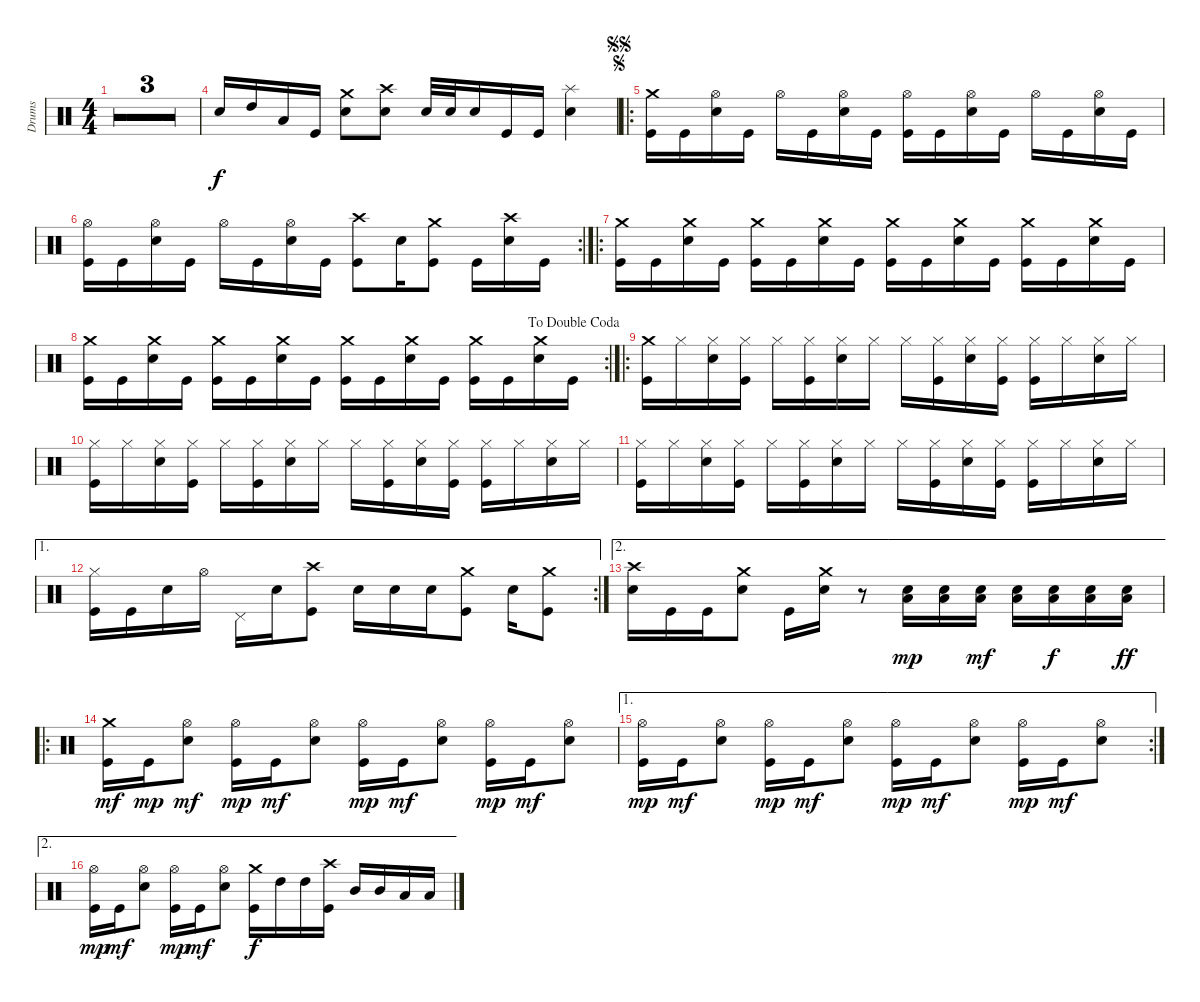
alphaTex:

\bracketExtendMode groupsimilarinstruments
\otherSystemsTrackNameOrientation horizontal
\track ("Drumkit" "Drums") {multiBarRest instrument percussion}
\staff {score}
\articulation defaults
\ts (4 4)
\beaming (8 2 2 2 2)
\tempo 100
\clef neutral
\ks c
r.4{dy f} r.2{d} |
r.4 r.2{d} |
r.4 r.2{d} |
"Snare (hit) 2".16 "High Tom (hit)".16 "Low Tom (hit)".16 "Kick (hit)".16 ("Crash medium (hit)" "Snare (hit) 2").8 ("Crash high (hit)" "Snare (hit) 2").8 "Snare (hit) 2".32 "Snare (hit) 2".32 "Snare (hit) 2".16 "Kick (hit)".16 "Kick (hit)".16 ("Splash (hit)" "Snare (hit) 2").4 |
\ro
\jump segno
\jump segnosegno
("Crash medium (hit)" "Kick (hit)").16 "Kick (hit)".16 ("Hi-Hat (open)" "Snare (hit) 2").16 "Kick (hit)".16 "Hi-Hat (open)".16 "Kick (hit)".16 ("Hi-Hat (open)" "Snare (hit) 2").16 "Kick (hit)".16 ("Hi-Hat (open)" "Kick (hit)").16 "Kick (hit)".16 ("Hi-Hat (open)" "Snare (hit) 2").16 "Kick (hit)".16 "Hi-Hat (open)".16 "Kick (hit)".16 ("Hi-Hat (open)" "Snare (hit) 2").16 "Kick (hit)".16 |
\rc 2
("Hi-Hat (open)" "Kick (hit)").16 "Kick (hit)".16 ("Hi-Hat (open)" "Snare (hit) 2").16 "Kick (hit)".16 "Hi-Hat (open)".16 "Kick (hit)".16 ("Hi-Hat (open)" "Snare (hit) 2").16 "Kick (hit)".16 ("Crash high (hit)" "Kick (hit)").8 "Snare (hit) 2".16 ("Crash medium (hit)" "Kick (hit)").8 "Kick (hit)".16 ("Crash high (hit)" "Snare (hit) 2").16 "Kick (hit)".16 |
\ro
("Crash medium (hit)" "Kick (hit)").16 "Kick (hit)".16 ("Crash medium (hit)" "Snare (hit) 2").16 "Kick (hit)".16 ("Crash medium (hit)" "Kick (hit)").16 "Kick (hit)".16 ("Crash medium (hit)" "Snare (hit) 2").16 "Kick (hit)".16 ("Crash medium (hit)" "Kick (hit)").16 "Kick (hit)".16 ("Crash medium (hit)" "Snare (hit) 2").16 "Kick (hit)".16 ("Crash medium (hit)" "Kick (hit)").16 "Kick (hit)".16 ("Crash medium (hit)" "Snare (hit) 2").16 "Kick (hit)".16 |
\rc 2
\jump dadoublecoda
("Crash medium (hit)" "Kick (hit)").16 "Kick (hit)".16 ("Crash medium (hit)" "Snare (hit) 2").16 "Kick (hit)".16 ("Crash medium (hit)" "Kick (hit)").16 "Kick (hit)".16 ("Crash medium (hit)" "Snare (hit) 2").16 "Kick (hit)".16 ("Crash medium (hit)" "Kick (hit)").16 "Kick (hit)".16 ("Crash medium (hit)" "Snare (hit) 2").16 "Kick (hit)".16 ("Crash medium (hit)" "Kick (hit)").16 "Kick (hit)".16 ("Crash medium (hit)" "Snare (hit) 2").16 "Kick (hit)".16 |
\ro
("Crash medium (hit)" "Kick (hit)").16 "Hi-Hat (closed)".16 ("Hi-Hat (closed)" "Snare (hit) 2").16 ("Hi-Hat (closed)" "Kick (hit)").16 "Hi-Hat (closed)".16 ("Hi-Hat (closed)" "Kick (hit)").16 ("Hi-Hat (closed)" "Snare (hit) 2").16 "Hi-Hat (closed)".16 "Hi-Hat (closed)".16 ("Hi-Hat (closed)" "Kick (hit)").16 ("Hi-Hat (closed)" "Snare (hit) 2").16 ("Hi-Hat (closed)" "Kick (hit)").16 ("Hi-Hat (closed)" "Kick (hit)").16 "Hi-Hat (closed)".16 ("Hi-Hat (closed)" "Snare (hit) 2").16 "Hi-Hat (closed)".16 |
("Hi-Hat (closed)" "Kick (hit)").16 "Hi-Hat (closed)".16 ("Hi-Hat (closed)" "Snare (hit) 2").16 ("Hi-Hat (closed)" "Kick (hit)").16 "Hi-Hat (closed)".16 ("Hi-Hat (closed)" "Kick (hit)").16 ("Hi-Hat (closed)" "Snare (hit) 2").16 "Hi-Hat (closed)".16 "Hi-Hat (closed)".16 ("Hi-Hat (closed)" "Kick (hit)").16 ("Hi-Hat (closed)" "Snare (hit) 2").16 ("Hi-Hat (closed)" "Kick (hit)").16 ("Hi-Hat (closed)" "Kick (hit)").16 "Hi-Hat (closed)".16 ("Hi-Hat (closed)" "Snare (hit) 2").16 "Hi-Hat (closed)".16 |
("Hi-Hat (closed)" "Kick (hit)").16 "Hi-Hat (closed)".16 ("Hi-Hat (closed)" "Snare (hit) 2").16 ("Hi-Hat (closed)" "Kick (hit)").16 "Hi-Hat (closed)".16 ("Hi-Hat (closed)" "Kick (hit)").16 ("Hi-Hat (closed)" "Snare (hit) 2").16 "Hi-Hat (closed)".16 "Hi-Hat (closed)".16 ("Hi-Hat (closed)" "Kick (hit)").16 ("Hi-Hat (closed)" "Snare (hit) 2").16 ("Hi-Hat (closed)" "Kick (hit)").16 ("Hi-Hat (closed)" "Kick (hit)").16 "Hi-Hat (closed)".16 ("Hi-Hat (closed)" "Snare (hit) 2").16 "Hi-Hat (closed)".16 |
\ae 1
\rc 2
("Hi-Hat (closed)" "Kick (hit)").16 "Kick (hit)".16 "Snare (hit) 2".16 "Hi-Hat (open)".16 "Pedal Hi-Hat (hit)".16 "Snare (hit) 2".16 ("Crash high (hit)" "Kick (hit)").8 "Snare (hit) 2".16 "Snare (hit) 2".16 "Snare (hit) 2".16 ("Crash medium (hit)" "Kick (hit)").8 "Snare (hit) 2".16 ("Crash medium (hit)" "Kick (hit)").8 |
\ae 2
("Crash high (hit)" "Snare (hit) 2").16 "Kick (hit)".16 "Kick (hit)".16 ("Crash medium (hit)" "Snare (hit) 2").8 "Kick (hit)".16 ("Crash medium (hit)" "Snare (hit) 2").16 r.8 ("Low Tom (hit)" "Snare (hit) 2").16{dy mp} ("Low Tom (hit)" "Snare (hit) 2").16 ("Low Tom (hit)" "Snare (hit) 2").16{dy mf} ("Low Tom (hit)" "Snare (hit) 2").16 ("Low Tom (hit)" "Snare (hit) 2").16{dy f} ("Low Tom (hit)" "Snare (hit) 2").16 ("Low Tom (hit)" "Snare (hit) 2").16{dy ff} |
\ro
("Crash medium (hit)" "Kick (hit)").16{dy mf} "Kick (hit)".16{dy mp} ("Hi-Hat (open)" "Snare (hit) 2").8{dy mf} ("Kick (hit)" "Hi-Hat (open)").16{dy mp} "Kick (hit)".16{dy mf} ("Hi-Hat (open)" "Snare (hit) 2").8 ("Kick (hit)" "Hi-Hat (open)").16{dy mp} "Kick (hit)".16{dy mf} ("Hi-Hat (open)" "Snare (hit) 2").8 ("Kick (hit)" "Hi-Hat (open)").16{dy mp} "Kick (hit)".16{dy mf} ("Hi-Hat (open)" "Snare (hit) 2").8 |
\ae 1
\rc 2
("Kick (hit)" "Hi-Hat (open)").16{dy mp} "Kick (hit)".16{dy mf} ("Hi-Hat (open)" "Snare (hit) 2").8 ("Kick (hit)" "Hi-Hat (open)").16{dy mp} "Kick (hit)".16{dy mf} ("Hi-Hat (open)" "Snare (hit) 2").8 ("Kick (hit)" "Hi-Hat (open)").16{dy mp} "Kick (hit)".16{dy mf} ("Hi-Hat (open)" "Snare (hit) 2").8 ("Kick (hit)" "Hi-Hat (open)").16{dy mp} "Kick (hit)".16{dy mf} ("Hi-Hat (open)" "Snare (hit) 2").8 |
\ae 2
("Kick (hit)" "Hi-Hat (open)").16{dy mp} "Kick (hit)".16{dy mf} ("Hi-Hat (open)" "Snare (hit) 2").8 ("Kick (hit)" "Hi-Hat (open)").16{dy mp} "Kick (hit)".16{dy mf} ("Hi-Hat (open)" "Snare (hit) 2").8 ("Crash medium (hit)" "Kick (hit)").16{dy f} "High Tom (hit)".16 "High Tom (hit)".16 ("Crash high (hit)" "Kick (hit)").16 "Mid Tom (hit)".16 "Mid Tom (hit)".16 "Low Tom (hit)".16 "Low Tom (hit)".16
